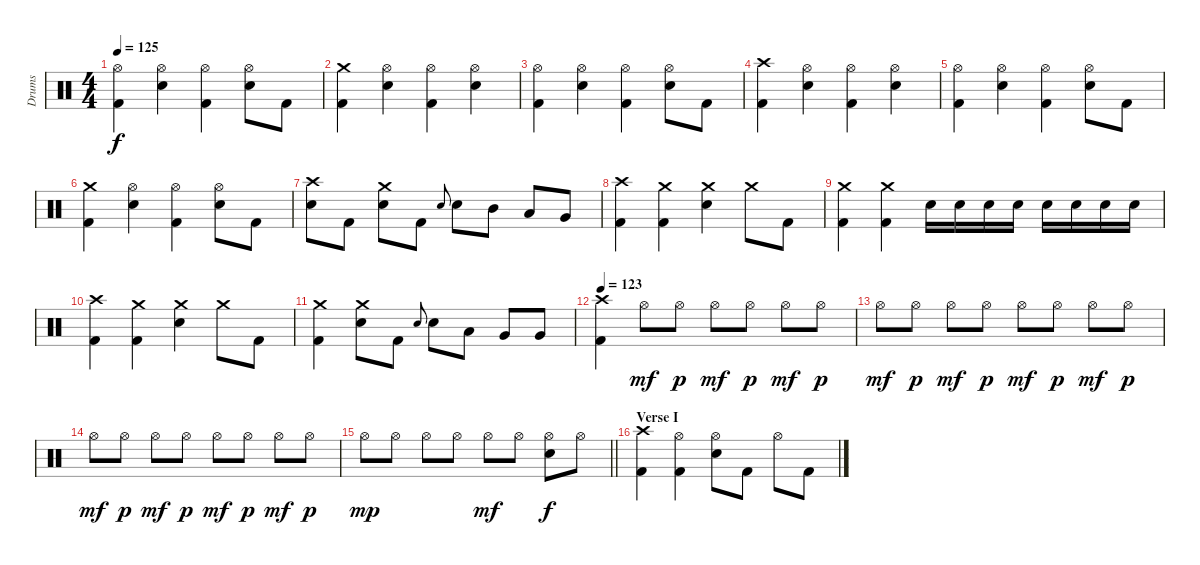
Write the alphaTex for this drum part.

\track ("Drums" "Drums") {instrument percussion}
\staff {score}
\articulation defaults
\ts (4 4)
\tempo 125
\clef neutral
\ks c
("Hi-Hat (open)" "Kick (hit) 2").4{dy f} ("Hi-Hat (open)" "Snare (hit) 2").4 ("Hi-Hat (open)" "Kick (hit) 2").4 ("Hi-Hat (open)" "Snare (hit) 2").8 "Kick (hit) 2".8 |
("Crash medium (hit)" "Kick (hit) 2").4 ("Hi-Hat (open)" "Snare (hit) 2").4 ("Hi-Hat (open)" "Kick (hit) 2").4 ("Hi-Hat (open)" "Snare (hit) 2").4 |
("Hi-Hat (open)" "Kick (hit) 2").4 ("Hi-Hat (open)" "Snare (hit) 2").4 ("Hi-Hat (open)" "Kick (hit) 2").4 ("Hi-Hat (open)" "Snare (hit) 2").8 "Kick (hit) 2".8 |
("Crash high (hit)" "Kick (hit) 2").4 ("Hi-Hat (open)" "Snare (hit) 2").4 ("Hi-Hat (open)" "Kick (hit) 2").4 ("Hi-Hat (open)" "Snare (hit) 2").4 |
("Hi-Hat (open)" "Kick (hit) 2").4 ("Hi-Hat (open)" "Snare (hit) 2").4 ("Hi-Hat (open)" "Kick (hit) 2").4 ("Hi-Hat (open)" "Snare (hit) 2").8 "Kick (hit) 2".8 |
("Crash medium (hit)" "Kick (hit) 2").4 ("Hi-Hat (open)" "Snare (hit) 2").4 ("Hi-Hat (open)" "Kick (hit) 2").4 ("Hi-Hat (open)" "Snare (hit) 2").8 "Kick (hit) 2".8 |
("Crash high (hit)" "Snare (hit) 2").8 "Kick (hit) 2".8 ("Crash medium (hit)" "Snare (hit) 2").8 "Kick (hit) 2".8 "Snare (hit) 2".8{gr onbeat} "Snare (hit) 2".8 "Mid Tom (hit)".8 "Low Tom (hit)".8 "Very Low Tom (hit)".8 |
("Crash high (hit)" "Kick (hit) 2").4 ("Crash medium (hit)" "Kick (hit) 2").4 ("Crash medium (hit)" "Snare (hit) 2").4 "Crash medium (hit)".8 "Kick (hit) 2".8 |
("Crash medium (hit)" "Kick (hit) 2").4 ("Crash medium (hit)" "Kick (hit) 2").4 "Snare (hit) 2".16 "Snare (hit) 2".16 "Snare (hit) 2".16 "Snare (hit) 2".16 "Snare (hit) 2".16 "Snare (hit) 2".16 "Snare (hit) 2".16 "Snare (hit) 2".16 |
("Crash high (hit)" "Kick (hit) 2").4 ("Crash medium (hit)" "Kick (hit) 2").4 ("Crash medium (hit)" "Snare (hit) 2").4 "Crash medium (hit)".8 "Kick (hit) 2".8 |
("Crash medium (hit)" "Kick (hit) 2").4 ("Crash medium (hit)" "Snare (hit) 2").8 "Kick (hit) 2".8 "Snare (hit) 2".8{gr onbeat} "Snare (hit) 2".8 "Low Tom (hit)".8 "Very Low Tom (hit)".8 "Very Low Tom (hit)".8 |
\tempo 123
("Crash high (hit)" "Kick (hit) 2").4 "Hi-Hat (open)".8{dy mf} "Hi-Hat (open)".8{dy p} "Hi-Hat (open)".8{dy mf} "Hi-Hat (open)".8{dy p} "Hi-Hat (open)".8{dy mf} "Hi-Hat (open)".8{dy p} |
"Hi-Hat (open)".8{dy mf} "Hi-Hat (open)".8{dy p} "Hi-Hat (open)".8{dy mf} "Hi-Hat (open)".8{dy p} "Hi-Hat (open)".8{dy mf} "Hi-Hat (open)".8{dy p} "Hi-Hat (open)".8{dy mf} "Hi-Hat (open)".8{dy p} |
"Hi-Hat (open)".8{dy mf} "Hi-Hat (open)".8{dy p} "Hi-Hat (open)".8{dy mf} "Hi-Hat (open)".8{dy p} "Hi-Hat (open)".8{dy mf} "Hi-Hat (open)".8{dy p} "Hi-Hat (open)".8{dy mf} "Hi-Hat (open)".8{dy p} |
\barLineRight lightlight "Hi-Hat (open)".8{dy mp} "Hi-Hat (open)".8 "Hi-Hat (open)".8 "Hi-Hat (open)".8 "Hi-Hat (open)".8{dy mf} "Hi-Hat (open)".8
("Hi-Hat (open)" "Snare (hit) 2").8{dy f} "Hi-Hat (open)".8 |
\section ("" "Verse I")
("Crash high (hit)" "Kick (hit) 2").4 ("Hi-Hat (open)" "Kick (hit) 2").4 ("Hi-Hat (open)" "Snare (hit) 2").8 "Kick (hit) 2".8 "Hi-Hat (open)".8 "Kick (hit) 2".8
